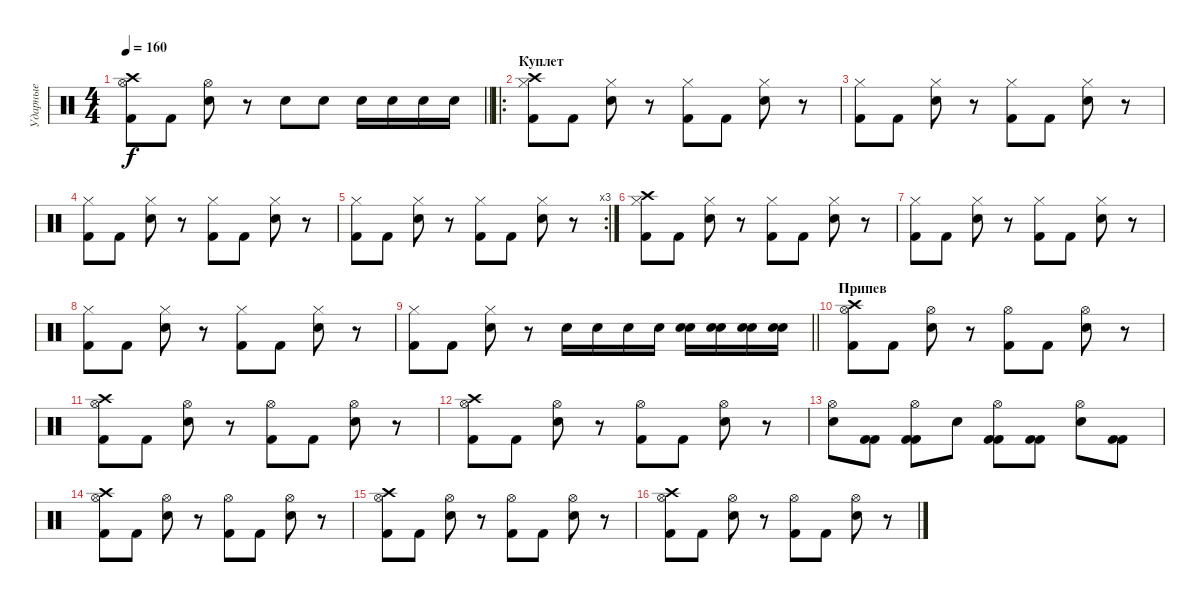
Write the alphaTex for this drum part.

\track ("Ударные" "Ударные") {instrument percussion}
\staff {score}
\articulation defaults
\ts (4 4)
\tempo 160
\clef neutral
\barLineRight lightlight
\ks c
("Crash high (hit)" "Kick (hit) 2" "Hi-Hat (open)").8{dy f} "Kick (hit) 2".8 ("Snare (hit) 2" "Hi-Hat (open)").8 r.8 "Snare (hit) 2".8 "Snare (hit) 2".8 "Snare (hit) 2".16 "Snare (hit) 2".16 "Snare (hit) 2".16 "Snare (hit) 2".16 |
\ro
\section ("" "Куплет")
("Crash high (hit)" "Kick (hit) 2" "Hi-Hat (closed)").8 "Kick (hit) 2".8 ("Snare (hit) 2" "Hi-Hat (closed)").8 r.8 ("Kick (hit) 2" "Hi-Hat (closed)").8 "Kick (hit) 2".8 ("Snare (hit) 2" "Hi-Hat (closed)").8 r.8 |
("Kick (hit) 2" "Hi-Hat (closed)").8 "Kick (hit) 2".8 ("Snare (hit) 2" "Hi-Hat (closed)").8 r.8 ("Kick (hit) 2" "Hi-Hat (closed)").8 "Kick (hit) 2".8 ("Snare (hit) 2" "Hi-Hat (closed)").8 r.8 |
("Kick (hit) 2" "Hi-Hat (closed)").8 "Kick (hit) 2".8 ("Snare (hit) 2" "Hi-Hat (closed)").8 r.8 ("Kick (hit) 2" "Hi-Hat (closed)").8 "Kick (hit) 2".8 ("Snare (hit) 2" "Hi-Hat (closed)").8 r.8 |
\rc 3
("Kick (hit) 2" "Hi-Hat (closed)").8 "Kick (hit) 2".8 ("Snare (hit) 2" "Hi-Hat (closed)").8 r.8 ("Kick (hit) 2" "Hi-Hat (closed)").8 "Kick (hit) 2".8 ("Snare (hit) 2" "Hi-Hat (closed)").8 r.8 |
("Crash high (hit)" "Kick (hit) 2" "Hi-Hat (closed)").8 "Kick (hit) 2".8 ("Snare (hit) 2" "Hi-Hat (closed)").8 r.8 ("Kick (hit) 2" "Hi-Hat (closed)").8 "Kick (hit) 2".8 ("Snare (hit) 2" "Hi-Hat (closed)").8 r.8 |
("Kick (hit) 2" "Hi-Hat (closed)").8 "Kick (hit) 2".8 ("Snare (hit) 2" "Hi-Hat (closed)").8 r.8 ("Kick (hit) 2" "Hi-Hat (closed)").8 "Kick (hit) 2".8 ("Snare (hit) 2" "Hi-Hat (closed)").8 r.8 |
("Kick (hit) 2" "Hi-Hat (closed)").8 "Kick (hit) 2".8 ("Snare (hit) 2" "Hi-Hat (closed)").8 r.8 ("Kick (hit) 2" "Hi-Hat (closed)").8 "Kick (hit) 2".8 ("Snare (hit) 2" "Hi-Hat (closed)").8 r.8 |
\barLineRight lightlight
("Kick (hit) 2" "Hi-Hat (closed)").8 "Kick (hit) 2".8 ("Snare (hit) 2" "Hi-Hat (closed)").8 r.8 "Snare (hit) 2".16 "Snare (hit) 2".16 "Snare (hit) 2".16 "Snare (hit) 2".16 ("Snare (hit) 2" "Snare (hit) 2").16 ("Snare (hit) 2" "Snare (hit) 2").16 ("Snare (hit) 2" "Snare (hit) 2").16 ("Snare (hit) 2" "Snare (hit) 2").16 |
\section ("" "Припев")
("Crash high (hit)" "Kick (hit) 2" "Hi-Hat (open)").8 "Kick (hit) 2".8 ("Snare (hit) 2" "Hi-Hat (open)").8 r.8 ("Kick (hit) 2" "Hi-Hat (open)").8 "Kick (hit) 2".8 ("Snare (hit) 2" "Hi-Hat (open)").8 r.8 |
("Crash high (hit)" "Kick (hit) 2" "Hi-Hat (open)").8 "Kick (hit) 2".8 ("Snare (hit) 2" "Hi-Hat (open)").8 r.8 ("Kick (hit) 2" "Hi-Hat (open)").8 "Kick (hit) 2".8 ("Snare (hit) 2" "Hi-Hat (open)").8 r.8 |
("Crash high (hit)" "Kick (hit) 2" "Hi-Hat (open)").8 "Kick (hit) 2".8 ("Snare (hit) 2" "Hi-Hat (open)").8 r.8 ("Kick (hit) 2" "Hi-Hat (open)").8 "Kick (hit) 2".8 ("Snare (hit) 2" "Hi-Hat (open)").8 r.8 |
("Hi-Hat (open)" "Snare (hit) 2").8 ("Kick (hit) 2" "Kick (hit) 2").8 ("Kick (hit) 2" "Hi-Hat (open)" "Kick (hit) 2").8 "Snare (hit) 2".8 ("Kick (hit) 2" "Hi-Hat (open)" "Kick (hit) 2").8 ("Kick (hit) 2" "Kick (hit) 2").8 ("Hi-Hat (open)" "Snare (hit) 2").8 ("Kick (hit) 2" "Kick (hit) 2").8 |
("Crash high (hit)" "Kick (hit) 2" "Hi-Hat (open)").8 "Kick (hit) 2".8 ("Snare (hit) 2" "Hi-Hat (open)").8 r.8 ("Kick (hit) 2" "Hi-Hat (open)").8 "Kick (hit) 2".8 ("Snare (hit) 2" "Hi-Hat (open)").8 r.8 |
("Crash high (hit)" "Kick (hit) 2" "Hi-Hat (open)").8 "Kick (hit) 2".8 ("Snare (hit) 2" "Hi-Hat (open)").8 r.8 ("Kick (hit) 2" "Hi-Hat (open)").8 "Kick (hit) 2".8 ("Snare (hit) 2" "Hi-Hat (open)").8 r.8 |
("Crash high (hit)" "Kick (hit) 2" "Hi-Hat (open)").8 "Kick (hit) 2".8 ("Snare (hit) 2" "Hi-Hat (open)").8 r.8 ("Kick (hit) 2" "Hi-Hat (open)").8 "Kick (hit) 2".8 ("Snare (hit) 2" "Hi-Hat (open)").8 r.8
